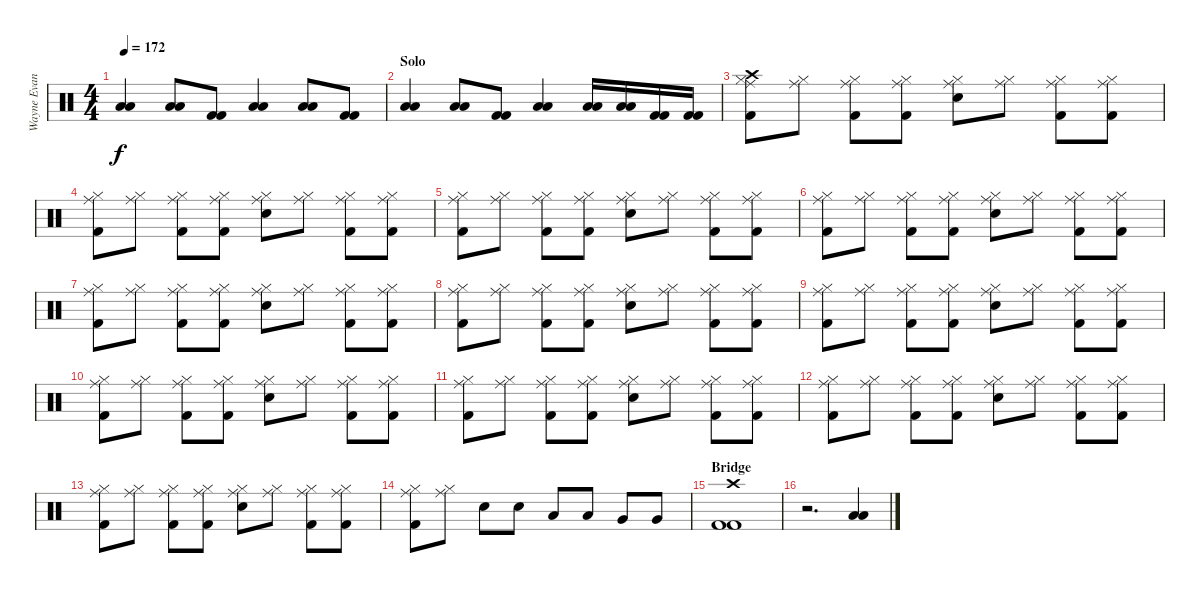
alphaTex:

\track ("Wayne Evans  " "Wayne Evan") {instrument percussion}
\staff {score}
\articulation defaults
\ts (4 4)
\tempo 172
\clef neutral
\ks c
("Low Tom (hit)" "Low Tom (hit)").4{dy f} ("Low Tom (hit)" "Low Tom (hit)").8 ("Kick (hit) 2" "Kick (hit) 2").8 ("Low Tom (hit)" "Low Tom (hit)").4 ("Low Tom (hit)" "Low Tom (hit)").8 ("Kick (hit) 2" "Kick (hit) 2").8 |
\section ("" "Solo ")
("Low Tom (hit)" "Low Tom (hit)").4 ("Low Tom (hit)" "Low Tom (hit)").8 ("Kick (hit) 2" "Kick (hit) 2").8 ("Low Tom (hit)" "Low Tom (hit)").4 ("Low Tom (hit)" "Low Tom (hit)").16 ("Low Tom (hit)" "Low Tom (hit)").16 ("Kick (hit) 2" "Kick (hit) 2").16 ("Kick (hit) 2" "Kick (hit) 2").16 |
("Crash high (hit)" "Ride (middle)" "Hi-Hat (closed)" "Kick (hit) 2").8 ("Ride (middle)" "Hi-Hat (closed)").8 ("Ride (middle)" "Hi-Hat (closed)" "Kick (hit) 2").8 ("Ride (middle)" "Hi-Hat (closed)" "Kick (hit) 2").8 ("Ride (middle)" "Hi-Hat (closed)" "Electric Snare (hit)").8 ("Ride (middle)" "Hi-Hat (closed)").8 ("Ride (middle)" "Hi-Hat (closed)" "Kick (hit) 2").8 ("Ride (middle)" "Hi-Hat (closed)" "Kick (hit) 2").8 |
("Ride (middle)" "Hi-Hat (closed)" "Kick (hit) 2").8 ("Ride (middle)" "Hi-Hat (closed)").8 ("Ride (middle)" "Hi-Hat (closed)" "Kick (hit) 2").8 ("Ride (middle)" "Hi-Hat (closed)" "Kick (hit) 2").8 ("Ride (middle)" "Hi-Hat (closed)" "Electric Snare (hit)").8 ("Ride (middle)" "Hi-Hat (closed)").8 ("Ride (middle)" "Hi-Hat (closed)" "Kick (hit) 2").8 ("Ride (middle)" "Hi-Hat (closed)" "Kick (hit) 2").8 |
("Ride (middle)" "Hi-Hat (closed)" "Kick (hit) 2").8 ("Ride (middle)" "Hi-Hat (closed)").8 ("Ride (middle)" "Hi-Hat (closed)" "Kick (hit) 2").8 ("Ride (middle)" "Hi-Hat (closed)" "Kick (hit) 2").8 ("Ride (middle)" "Hi-Hat (closed)" "Electric Snare (hit)").8 ("Ride (middle)" "Hi-Hat (closed)").8 ("Ride (middle)" "Hi-Hat (closed)" "Kick (hit) 2").8 ("Ride (middle)" "Hi-Hat (closed)" "Kick (hit) 2").8 |
("Ride (middle)" "Hi-Hat (closed)" "Kick (hit) 2").8 ("Ride (middle)" "Hi-Hat (closed)").8 ("Ride (middle)" "Hi-Hat (closed)" "Kick (hit) 2").8 ("Ride (middle)" "Hi-Hat (closed)" "Kick (hit) 2").8 ("Ride (middle)" "Hi-Hat (closed)" "Electric Snare (hit)").8 ("Ride (middle)" "Hi-Hat (closed)").8 ("Ride (middle)" "Hi-Hat (closed)" "Kick (hit) 2").8 ("Ride (middle)" "Hi-Hat (closed)" "Kick (hit) 2").8 |
("Ride (middle)" "Hi-Hat (closed)" "Kick (hit) 2").8 ("Ride (middle)" "Hi-Hat (closed)").8 ("Ride (middle)" "Hi-Hat (closed)" "Kick (hit) 2").8 ("Ride (middle)" "Hi-Hat (closed)" "Kick (hit) 2").8 ("Ride (middle)" "Hi-Hat (closed)" "Electric Snare (hit)").8 ("Ride (middle)" "Hi-Hat (closed)").8 ("Ride (middle)" "Hi-Hat (closed)" "Kick (hit) 2").8 ("Ride (middle)" "Hi-Hat (closed)" "Kick (hit) 2").8 |
("Ride (middle)" "Hi-Hat (closed)" "Kick (hit) 2").8 ("Ride (middle)" "Hi-Hat (closed)").8 ("Ride (middle)" "Hi-Hat (closed)" "Kick (hit) 2").8 ("Ride (middle)" "Hi-Hat (closed)" "Kick (hit) 2").8 ("Ride (middle)" "Hi-Hat (closed)" "Electric Snare (hit)").8 ("Ride (middle)" "Hi-Hat (closed)").8 ("Ride (middle)" "Hi-Hat (closed)" "Kick (hit) 2").8 ("Ride (middle)" "Hi-Hat (closed)" "Kick (hit) 2").8 |
("Ride (middle)" "Hi-Hat (closed)" "Kick (hit) 2").8 ("Ride (middle)" "Hi-Hat (closed)").8 ("Ride (middle)" "Hi-Hat (closed)" "Kick (hit) 2").8 ("Ride (middle)" "Hi-Hat (closed)" "Kick (hit) 2").8 ("Ride (middle)" "Hi-Hat (closed)" "Electric Snare (hit)").8 ("Ride (middle)" "Hi-Hat (closed)").8 ("Ride (middle)" "Hi-Hat (closed)" "Kick (hit) 2").8 ("Ride (middle)" "Hi-Hat (closed)" "Kick (hit) 2").8 |
("Ride (middle)" "Hi-Hat (closed)" "Kick (hit) 2").8 ("Ride (middle)" "Hi-Hat (closed)").8 ("Ride (middle)" "Hi-Hat (closed)" "Kick (hit) 2").8 ("Ride (middle)" "Hi-Hat (closed)" "Kick (hit) 2").8 ("Ride (middle)" "Hi-Hat (closed)" "Electric Snare (hit)").8 ("Ride (middle)" "Hi-Hat (closed)").8 ("Ride (middle)" "Hi-Hat (closed)" "Kick (hit) 2").8 ("Ride (middle)" "Hi-Hat (closed)" "Kick (hit) 2").8 |
("Ride (middle)" "Hi-Hat (closed)" "Kick (hit) 2").8 ("Ride (middle)" "Hi-Hat (closed)").8 ("Ride (middle)" "Hi-Hat (closed)" "Kick (hit) 2").8 ("Ride (middle)" "Hi-Hat (closed)" "Kick (hit) 2").8 ("Ride (middle)" "Hi-Hat (closed)" "Electric Snare (hit)").8 ("Ride (middle)" "Hi-Hat (closed)").8 ("Ride (middle)" "Hi-Hat (closed)" "Kick (hit) 2").8 ("Ride (middle)" "Hi-Hat (closed)" "Kick (hit) 2").8 |
("Ride (middle)" "Hi-Hat (closed)" "Kick (hit) 2").8 ("Ride (middle)" "Hi-Hat (closed)").8 ("Ride (middle)" "Hi-Hat (closed)" "Kick (hit) 2").8 ("Ride (middle)" "Hi-Hat (closed)" "Kick (hit) 2").8 ("Ride (middle)" "Hi-Hat (closed)" "Electric Snare (hit)").8 ("Ride (middle)" "Hi-Hat (closed)").8 ("Ride (middle)" "Hi-Hat (closed)" "Kick (hit) 2").8 ("Ride (middle)" "Hi-Hat (closed)" "Kick (hit) 2").8 |
("Ride (middle)" "Hi-Hat (closed)" "Kick (hit) 2").8 ("Ride (middle)" "Hi-Hat (closed)").8 ("Ride (middle)" "Hi-Hat (closed)" "Kick (hit) 2").8 ("Ride (middle)" "Hi-Hat (closed)" "Kick (hit) 2").8 ("Ride (middle)" "Hi-Hat (closed)" "Electric Snare (hit)").8 ("Ride (middle)" "Hi-Hat (closed)").8 ("Ride (middle)" "Hi-Hat (closed)" "Kick (hit) 2").8 ("Ride (middle)" "Hi-Hat (closed)" "Kick (hit) 2").8 |
("Ride (middle)" "Hi-Hat (closed)" "Kick (hit) 2").8 ("Ride (middle)" "Hi-Hat (closed)").8 "Electric Snare (hit)".8 "Electric Snare (hit)".8 "Low Tom (hit)".8 "Low Tom (hit)".8 "Very Low Tom (hit)".8 "Very Low Tom (hit)".8 |
\section ("" "Bridge")
("Crash high (hit)" "Kick (hit) 2" "Kick (hit) 2").1 |
r.2{d} ("Low Tom (hit)" "Low Tom (hit)").4
